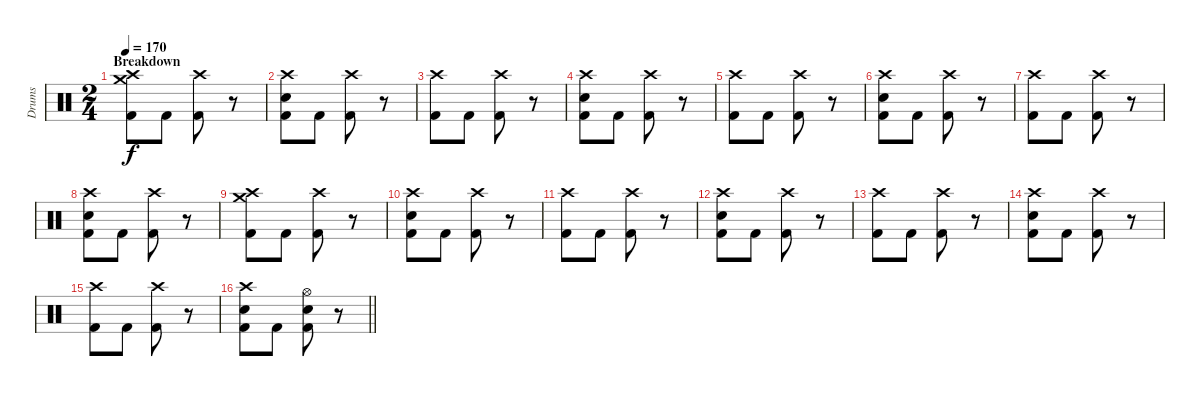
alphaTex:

\track ("Drums" "Drums") {instrument percussion}
\staff {score}
\articulation defaults
\ts (2 4)
\section ("" "Breakdown")
\tempo 170
\clef neutral
\ks c
("Crash medium (hit)" "Crash high (hit)" "Kick (hit) 2").8{dy f} "Kick (hit) 2".8 ("Crash high (hit)" "Kick (hit) 2").8 r.8 |
("Crash high (hit)" "Electric Snare (hit)" "Kick (hit) 2").8 "Kick (hit) 2".8 ("Crash high (hit)" "Kick (hit) 2").8 r.8 |
("Crash high (hit)" "Kick (hit) 2").8 "Kick (hit) 2".8 ("Crash high (hit)" "Kick (hit) 2").8 r.8 |
("Crash high (hit)" "Electric Snare (hit)" "Kick (hit) 2").8 "Kick (hit) 2".8 ("Crash high (hit)" "Kick (hit) 2").8 r.8 |
("Crash high (hit)" "Kick (hit) 2").8 "Kick (hit) 2".8 ("Crash high (hit)" "Kick (hit) 2").8 r.8 |
("Crash high (hit)" "Electric Snare (hit)" "Kick (hit) 2").8 "Kick (hit) 2".8 ("Crash high (hit)" "Kick (hit) 2").8 r.8 |
("Crash high (hit)" "Kick (hit) 2").8 "Kick (hit) 2".8 ("Crash high (hit)" "Kick (hit) 2").8 r.8 |
("Crash high (hit)" "Electric Snare (hit)" "Kick (hit) 2").8 "Kick (hit) 2".8 ("Crash high (hit)" "Kick (hit) 2").8 r.8 |
("Crash medium (hit)" "Crash high (hit)" "Kick (hit) 2").8 "Kick (hit) 2".8 ("Crash high (hit)" "Kick (hit) 2").8 r.8 |
("Crash high (hit)" "Electric Snare (hit)" "Kick (hit) 2").8 "Kick (hit) 2".8 ("Crash high (hit)" "Kick (hit) 2").8 r.8 |
("Crash high (hit)" "Kick (hit) 2").8 "Kick (hit) 2".8 ("Crash high (hit)" "Kick (hit) 2").8 r.8 |
("Crash high (hit)" "Electric Snare (hit)" "Kick (hit) 2").8 "Kick (hit) 2".8 ("Crash high (hit)" "Kick (hit) 2").8 r.8 |
("Crash high (hit)" "Kick (hit) 2").8 "Kick (hit) 2".8 ("Crash high (hit)" "Kick (hit) 2").8 r.8 |
("Crash high (hit)" "Electric Snare (hit)" "Kick (hit) 2").8 "Kick (hit) 2".8 ("Crash high (hit)" "Kick (hit) 2").8 r.8 |
("Crash high (hit)" "Kick (hit) 2").8 "Kick (hit) 2".8 ("Crash high (hit)" "Kick (hit) 2").8 r.8 |
\barLineRight lightlight
("Crash high (hit)" "Electric Snare (hit)" "Kick (hit) 2").8 "Kick (hit) 2".8 ("Hi-Hat (open)" "Electric Snare (hit)" "Kick (hit) 2").8 r.8
